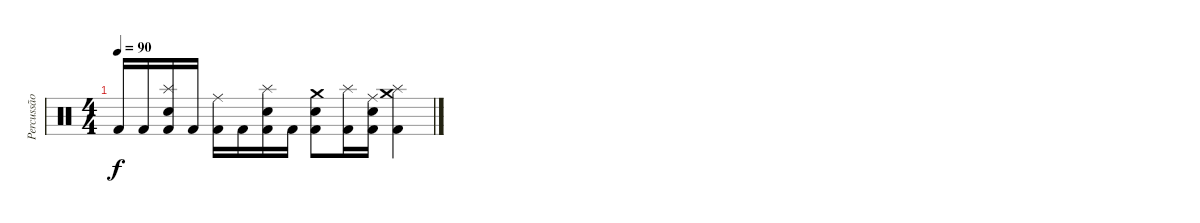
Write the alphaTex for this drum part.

\track ("Percussão" "Percussão") {instrument percussion}
\staff {score}
\articulation defaults
\ts (4 4)
\tempo 90
\clef neutral
\ks c "Kick (hit) 2".16{dy f} "Kick (hit) 2".16
("Splash (hit)" "Metronome (bell)" "Kick (hit) 2").16 "Kick (hit) 2".16 ("Ride (middle)" "Kick (hit) 2").16 "Kick (hit) 2".16 ("Splash (hit)" "Metronome (bell)" "Kick (hit) 2").16 "Kick (hit) 2".16 ("Crash medium (hit)" "Metronome (bell)" "Kick (hit) 2").8 ("Splash (hit)" "Kick (hit) 2").16 ("Ride (middle)" "Metronome (bell)" "Kick (hit) 2").16 ("Splash (hit)" "Crash medium (hit)" "Kick (hit) 2").4
